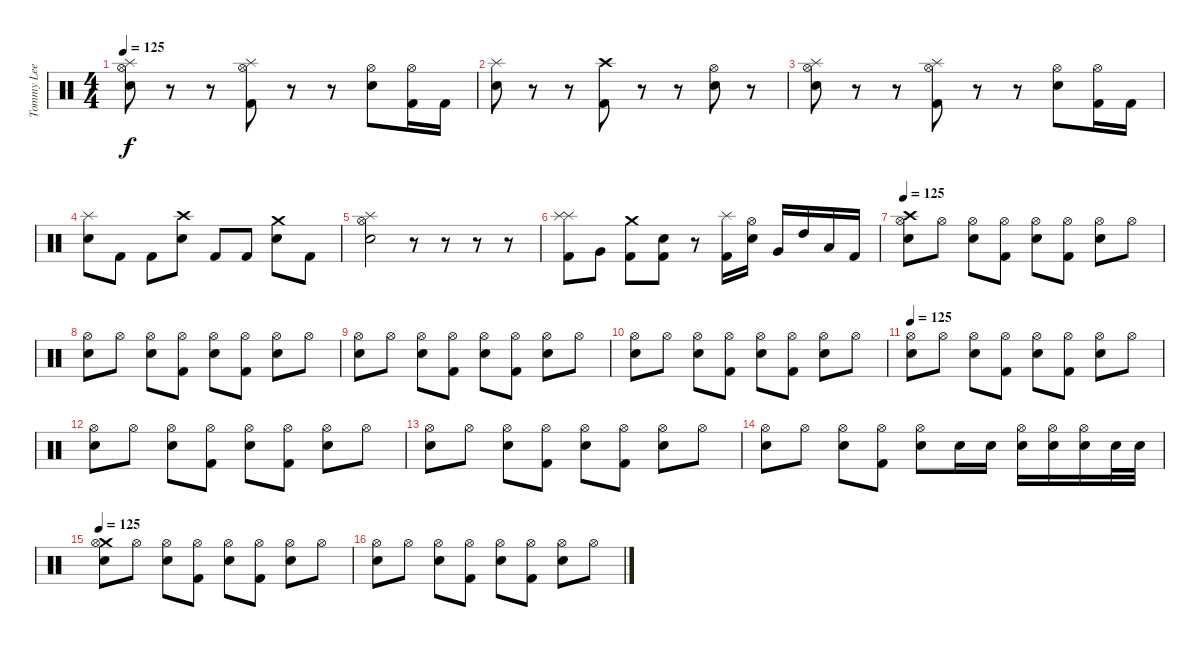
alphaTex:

\track ("Tommy Lee" "Tommy Lee") {instrument percussion}
\staff {score}
\articulation defaults
\ts (4 4)
\tempo 125
\clef neutral
\ks c
("Splash (hit)" "Hi-Hat (open)" "Snare (hit) 2").8{dy f} r.8 r.8 ("Splash (hit)" "Hi-Hat (open)" "Kick (hit) 2").8 r.8 r.8 ("Hi-Hat (open)" "Snare (hit) 2").8 ("Hi-Hat (open)" "Kick (hit) 2").16 "Kick (hit) 2".16 |
("Splash (hit)" "Snare (hit) 2").8 r.8 r.8 ("Kick (hit) 2" "Crash high (hit)").8 r.8 r.8 ("Hi-Hat (open)" "Snare (hit) 2").8 r.8 |
("Splash (hit)" "Hi-Hat (open)" "Snare (hit) 2").8 r.8 r.8 ("Splash (hit)" "Hi-Hat (open)" "Kick (hit) 2").8 r.8 r.8 ("Hi-Hat (open)" "Snare (hit) 2").8 ("Hi-Hat (open)" "Kick (hit) 2").16 "Kick (hit) 2".16 |
("Splash (hit)" "Snare (hit) 2").8 "Kick (hit) 2".8 "Kick (hit) 2".8 ("Crash high (hit)" "Snare (hit) 2").8 "Kick (hit) 2".8 "Kick (hit) 2".8 ("Crash medium (hit)" "Snare (hit) 2").8 "Kick (hit) 2".8 |
("Splash (hit)" "Hi-Hat (open)" "Snare (hit) 2").2 r.8 r.8 r.8 r.8 |
("Splash (hit)" "Splash (hit)" "Kick (hit) 2").8 "Very Low Tom (hit)".8 ("Crash medium (hit)" "Kick (hit) 2").8 ("Kick (hit) 2" "Snare (hit) 2").8 r.8 ("Kick (hit) 2" "Splash (hit)").16 ("Hi-Hat (open)" "Snare (hit) 2").16 "Very Low Tom (hit)".16 "High Tom (hit)".16 "Low Tom (hit)".16 "Kick (hit) 2".16 |
\tempo 125
("Crash high (hit)" "Hi-Hat (open)" "Snare (hit) 2").8 "Hi-Hat (open)".8 ("Hi-Hat (open)" "Snare (hit) 2").8 ("Hi-Hat (open)" "Kick (hit) 2").8 ("Hi-Hat (open)" "Snare (hit) 2").8 ("Hi-Hat (open)" "Kick (hit) 2").8 ("Hi-Hat (open)" "Snare (hit) 2").8 "Hi-Hat (open)".8 |
("Hi-Hat (open)" "Snare (hit) 2").8 "Hi-Hat (open)".8 ("Hi-Hat (open)" "Snare (hit) 2").8 ("Hi-Hat (open)" "Kick (hit) 2").8 ("Hi-Hat (open)" "Snare (hit) 2").8 ("Hi-Hat (open)" "Kick (hit) 2").8 ("Hi-Hat (open)" "Snare (hit) 2").8 "Hi-Hat (open)".8 |
("Hi-Hat (open)" "Snare (hit) 2").8 "Hi-Hat (open)".8 ("Hi-Hat (open)" "Snare (hit) 2").8 ("Hi-Hat (open)" "Kick (hit) 2").8 ("Hi-Hat (open)" "Snare (hit) 2").8 ("Hi-Hat (open)" "Kick (hit) 2").8 ("Hi-Hat (open)" "Snare (hit) 2").8 "Hi-Hat (open)".8 |
("Hi-Hat (open)" "Snare (hit) 2").8 "Hi-Hat (open)".8 ("Hi-Hat (open)" "Snare (hit) 2").8 ("Hi-Hat (open)" "Kick (hit) 2").8 ("Hi-Hat (open)" "Snare (hit) 2").8 ("Hi-Hat (open)" "Kick (hit) 2").8 ("Hi-Hat (open)" "Snare (hit) 2").8 "Hi-Hat (open)".8 |
\tempo 125
("Hi-Hat (open)" "Snare (hit) 2").8 "Hi-Hat (open)".8 ("Hi-Hat (open)" "Snare (hit) 2").8 ("Hi-Hat (open)" "Kick (hit) 2").8 ("Hi-Hat (open)" "Snare (hit) 2").8 ("Hi-Hat (open)" "Kick (hit) 2").8 ("Hi-Hat (open)" "Snare (hit) 2").8 "Hi-Hat (open)".8 |
("Hi-Hat (open)" "Snare (hit) 2").8 "Hi-Hat (open)".8 ("Hi-Hat (open)" "Snare (hit) 2").8 ("Hi-Hat (open)" "Kick (hit) 2").8 ("Hi-Hat (open)" "Snare (hit) 2").8 ("Hi-Hat (open)" "Kick (hit) 2").8 ("Hi-Hat (open)" "Snare (hit) 2").8 "Hi-Hat (open)".8 |
("Hi-Hat (open)" "Snare (hit) 2").8 "Hi-Hat (open)".8 ("Hi-Hat (open)" "Snare (hit) 2").8 ("Hi-Hat (open)" "Kick (hit) 2").8 ("Hi-Hat (open)" "Snare (hit) 2").8 ("Hi-Hat (open)" "Kick (hit) 2").8 ("Hi-Hat (open)" "Snare (hit) 2").8 "Hi-Hat (open)".8 |
("Hi-Hat (open)" "Snare (hit) 2").8 "Hi-Hat (open)".8 ("Hi-Hat (open)" "Snare (hit) 2").8 ("Hi-Hat (open)" "Kick (hit) 2").8 ("Hi-Hat (open)" "Snare (hit) 2").8 "Snare (hit) 2".16 "Snare (hit) 2".16 ("Hi-Hat (open)" "Snare (hit) 2").16 ("Hi-Hat (open)" "Snare (hit) 2").16 ("Hi-Hat (open)" "Snare (hit) 2").16 "Snare (hit) 2".32 "Snare (hit) 2".32 |
\tempo 125
("Crash medium (hit)" "Hi-Hat (open)" "Snare (hit) 2").8 "Hi-Hat (open)".8 ("Hi-Hat (open)" "Snare (hit) 2").8 ("Hi-Hat (open)" "Kick (hit) 2").8 ("Hi-Hat (open)" "Snare (hit) 2").8 ("Hi-Hat (open)" "Kick (hit) 2").8 ("Hi-Hat (open)" "Snare (hit) 2").8 "Hi-Hat (open)".8 |
("Hi-Hat (open)" "Snare (hit) 2").8 "Hi-Hat (open)".8 ("Hi-Hat (open)" "Snare (hit) 2").8 ("Hi-Hat (open)" "Kick (hit) 2").8 ("Hi-Hat (open)" "Snare (hit) 2").8 ("Hi-Hat (open)" "Kick (hit) 2").8 ("Hi-Hat (open)" "Snare (hit) 2").8 "Hi-Hat (open)".8
